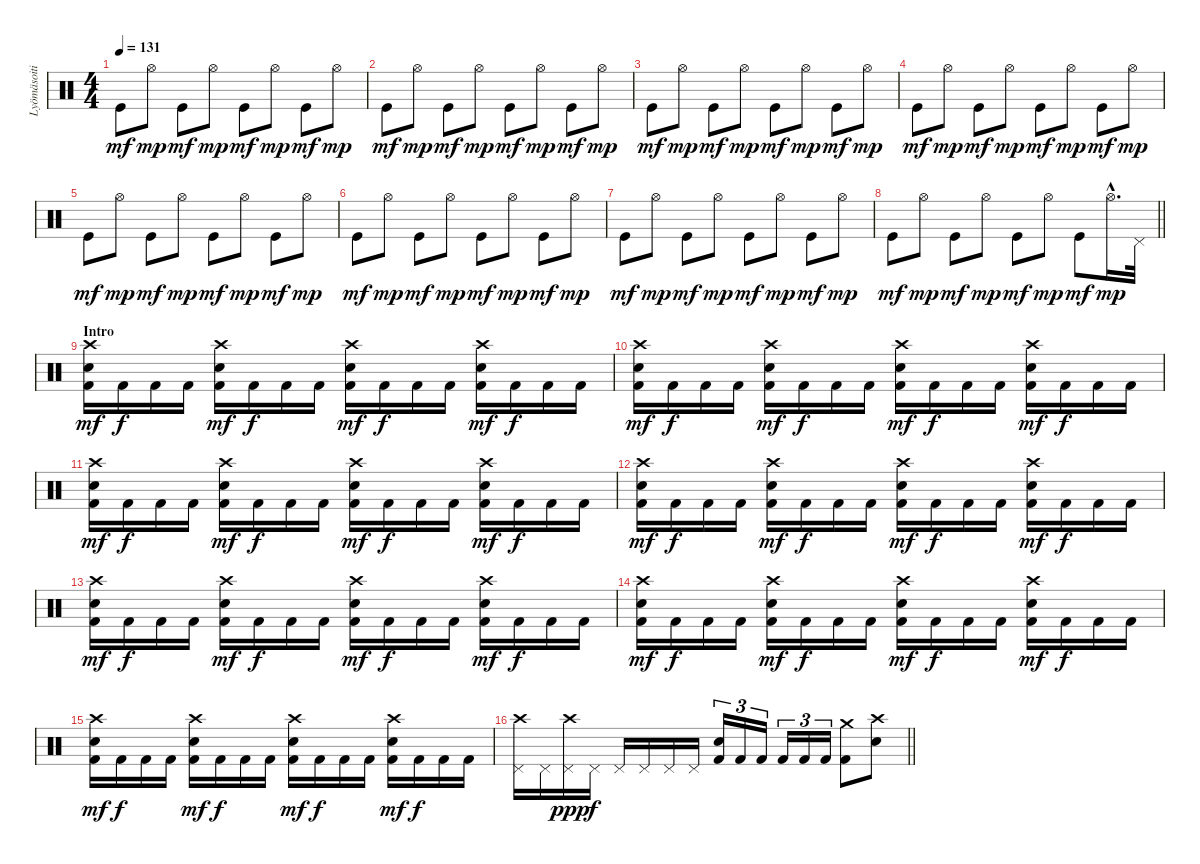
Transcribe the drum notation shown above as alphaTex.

\track ("Lyömäsoitin" "Lyömäsoiti") {instrument percussion}
\staff {score}
\articulation defaults
\ts (4 4)
\section ("" "")
\tempo 131
\clef neutral
\ks c "Kick (hit)".8{dy mf} "Hi-Hat (open)".8{dy mp} "Kick (hit)".8{dy mf} "Hi-Hat (open)".8{dy mp} "Kick (hit)".8{dy mf} "Hi-Hat (open)".8{dy mp} "Kick (hit)".8{dy mf} "Hi-Hat (open)".8{dy mp}
|
"Kick (hit)".8{dy mf} "Hi-Hat (open)".8{dy mp} "Kick (hit)".8{dy mf} "Hi-Hat (open)".8{dy mp} "Kick (hit)".8{dy mf} "Hi-Hat (open)".8{dy mp} "Kick (hit)".8{dy mf} "Hi-Hat (open)".8{dy mp} |
"Kick (hit)".8{dy mf} "Hi-Hat (open)".8{dy mp} "Kick (hit)".8{dy mf} "Hi-Hat (open)".8{dy mp} "Kick (hit)".8{dy mf} "Hi-Hat (open)".8{dy mp} "Kick (hit)".8{dy mf} "Hi-Hat (open)".8{dy mp} |
"Kick (hit)".8{dy mf} "Hi-Hat (open)".8{dy mp} "Kick (hit)".8{dy mf} "Hi-Hat (open)".8{dy mp} "Kick (hit)".8{dy mf} "Hi-Hat (open)".8{dy mp} "Kick (hit)".8{dy mf} "Hi-Hat (open)".8{dy mp} |
"Kick (hit)".8{dy mf} "Hi-Hat (open)".8{dy mp} "Kick (hit)".8{dy mf} "Hi-Hat (open)".8{dy mp} "Kick (hit)".8{dy mf} "Hi-Hat (open)".8{dy mp} "Kick (hit)".8{dy mf} "Hi-Hat (open)".8{dy mp} |
"Kick (hit)".8{dy mf} "Hi-Hat (open)".8{dy mp} "Kick (hit)".8{dy mf} "Hi-Hat (open)".8{dy mp} "Kick (hit)".8{dy mf} "Hi-Hat (open)".8{dy mp} "Kick (hit)".8{dy mf} "Hi-Hat (open)".8{dy mp} |
"Kick (hit)".8{dy mf} "Hi-Hat (open)".8{dy mp} "Kick (hit)".8{dy mf} "Hi-Hat (open)".8{dy mp} "Kick (hit)".8{dy mf} "Hi-Hat (open)".8{dy mp} "Kick (hit)".8{dy mf} "Hi-Hat (open)".8{dy mp} |
\barLineRight lightlight "Kick (hit)".8{dy mf} "Hi-Hat (open)".8{dy mp} "Kick (hit)".8{dy mf} "Hi-Hat (open)".8{dy mp} "Kick (hit)".8{dy mf} "Hi-Hat (open)".8{dy mp} "Kick (hit)".8{dy mf} "Hi-Hat (open)"{hac}.16{d dy mp} "Pedal Hi-Hat (hit)".32
|
\section ("" "Intro")
("Crash high (hit)" "Electric Snare (hit)" "Kick (hit) 2").16{dy mf} "Kick (hit) 2".16{dy f} "Kick (hit) 2".16 "Kick (hit) 2".16 ("Crash high (hit)" "Electric Snare (hit)" "Kick (hit) 2").16{dy mf} "Kick (hit) 2".16{dy f} "Kick (hit) 2".16 "Kick (hit) 2".16 ("Crash high (hit)" "Electric Snare (hit)" "Kick (hit) 2").16{dy mf} "Kick (hit) 2".16{dy f} "Kick (hit) 2".16 "Kick (hit) 2".16 ("Crash high (hit)" "Electric Snare (hit)" "Kick (hit) 2").16{dy mf} "Kick (hit) 2".16{dy f} "Kick (hit) 2".16 "Kick (hit) 2".16 |
("Crash high (hit)" "Electric Snare (hit)" "Kick (hit) 2").16{dy mf} "Kick (hit) 2".16{dy f} "Kick (hit) 2".16 "Kick (hit) 2".16 ("Crash high (hit)" "Electric Snare (hit)" "Kick (hit) 2").16{dy mf} "Kick (hit) 2".16{dy f} "Kick (hit) 2".16 "Kick (hit) 2".16 ("Crash high (hit)" "Electric Snare (hit)" "Kick (hit) 2").16{dy mf} "Kick (hit) 2".16{dy f} "Kick (hit) 2".16 "Kick (hit) 2".16 ("Crash high (hit)" "Electric Snare (hit)" "Kick (hit) 2").16{dy mf} "Kick (hit) 2".16{dy f} "Kick (hit) 2".16 "Kick (hit) 2".16 |
("Crash high (hit)" "Electric Snare (hit)" "Kick (hit) 2").16{dy mf} "Kick (hit) 2".16{dy f} "Kick (hit) 2".16 "Kick (hit) 2".16 ("Crash high (hit)" "Electric Snare (hit)" "Kick (hit) 2").16{dy mf} "Kick (hit) 2".16{dy f} "Kick (hit) 2".16 "Kick (hit) 2".16 ("Crash high (hit)" "Electric Snare (hit)" "Kick (hit) 2").16{dy mf} "Kick (hit) 2".16{dy f} "Kick (hit) 2".16 "Kick (hit) 2".16 ("Crash high (hit)" "Electric Snare (hit)" "Kick (hit) 2").16{dy mf} "Kick (hit) 2".16{dy f} "Kick (hit) 2".16 "Kick (hit) 2".16 |
("Crash high (hit)" "Electric Snare (hit)" "Kick (hit) 2").16{dy mf} "Kick (hit) 2".16{dy f} "Kick (hit) 2".16 "Kick (hit) 2".16 ("Crash high (hit)" "Electric Snare (hit)" "Kick (hit) 2").16{dy mf} "Kick (hit) 2".16{dy f} "Kick (hit) 2".16 "Kick (hit) 2".16 ("Crash high (hit)" "Electric Snare (hit)" "Kick (hit) 2").16{dy mf} "Kick (hit) 2".16{dy f} "Kick (hit) 2".16 "Kick (hit) 2".16 ("Crash high (hit)" "Electric Snare (hit)" "Kick (hit) 2").16{dy mf} "Kick (hit) 2".16{dy f} "Kick (hit) 2".16 "Kick (hit) 2".16 |
("Crash high (hit)" "Electric Snare (hit)" "Kick (hit) 2").16{dy mf} "Kick (hit) 2".16{dy f} "Kick (hit) 2".16 "Kick (hit) 2".16 ("Crash high (hit)" "Electric Snare (hit)" "Kick (hit) 2").16{dy mf} "Kick (hit) 2".16{dy f} "Kick (hit) 2".16 "Kick (hit) 2".16 ("Crash high (hit)" "Electric Snare (hit)" "Kick (hit) 2").16{dy mf} "Kick (hit) 2".16{dy f} "Kick (hit) 2".16 "Kick (hit) 2".16 ("Crash high (hit)" "Electric Snare (hit)" "Kick (hit) 2").16{dy mf} "Kick (hit) 2".16{dy f} "Kick (hit) 2".16 "Kick (hit) 2".16 |
("Crash high (hit)" "Electric Snare (hit)" "Kick (hit) 2").16{dy mf} "Kick (hit) 2".16{dy f} "Kick (hit) 2".16 "Kick (hit) 2".16 ("Crash high (hit)" "Electric Snare (hit)" "Kick (hit) 2").16{dy mf} "Kick (hit) 2".16{dy f} "Kick (hit) 2".16 "Kick (hit) 2".16 ("Crash high (hit)" "Electric Snare (hit)" "Kick (hit) 2").16{dy mf} "Kick (hit) 2".16{dy f} "Kick (hit) 2".16 "Kick (hit) 2".16 ("Crash high (hit)" "Electric Snare (hit)" "Kick (hit) 2").16{dy mf} "Kick (hit) 2".16{dy f} "Kick (hit) 2".16 "Kick (hit) 2".16 |
("Crash high (hit)" "Electric Snare (hit)" "Kick (hit) 2").16{dy mf} "Kick (hit) 2".16{dy f} "Kick (hit) 2".16 "Kick (hit) 2".16 ("Crash high (hit)" "Electric Snare (hit)" "Kick (hit) 2").16{dy mf} "Kick (hit) 2".16{dy f} "Kick (hit) 2".16 "Kick (hit) 2".16 ("Crash high (hit)" "Electric Snare (hit)" "Kick (hit) 2").16{dy mf} "Kick (hit) 2".16{dy f} "Kick (hit) 2".16 "Kick (hit) 2".16 ("Crash high (hit)" "Electric Snare (hit)" "Kick (hit) 2").16{dy mf} "Kick (hit) 2".16{dy f} "Kick (hit) 2".16 "Kick (hit) 2".16 |
\barLineRight lightlight
("Crash high (hit)" "Pedal Hi-Hat (hit)").16 "Pedal Hi-Hat (hit)".16 ("Crash high (hit)" "Pedal Hi-Hat (hit)").16{dy ppp} "Pedal Hi-Hat (hit)".16{dy f} "Pedal Hi-Hat (hit)".16 "Pedal Hi-Hat (hit)".16 "Pedal Hi-Hat (hit)".16 "Pedal Hi-Hat (hit)".16 ("Electric Snare (hit)" "Kick (hit) 2").16{tu (3 2)} "Kick (hit) 2".16{tu (3 2)} "Kick (hit) 2".16{tu (3 2)} "Kick (hit) 2".16{tu (3 2)} "Kick (hit) 2".16{tu (3 2)} "Kick (hit) 2".16{tu (3 2)} ("Crash medium (hit)" "Kick (hit) 2").8 ("Crash high (hit)" "Electric Snare (hit)").8
